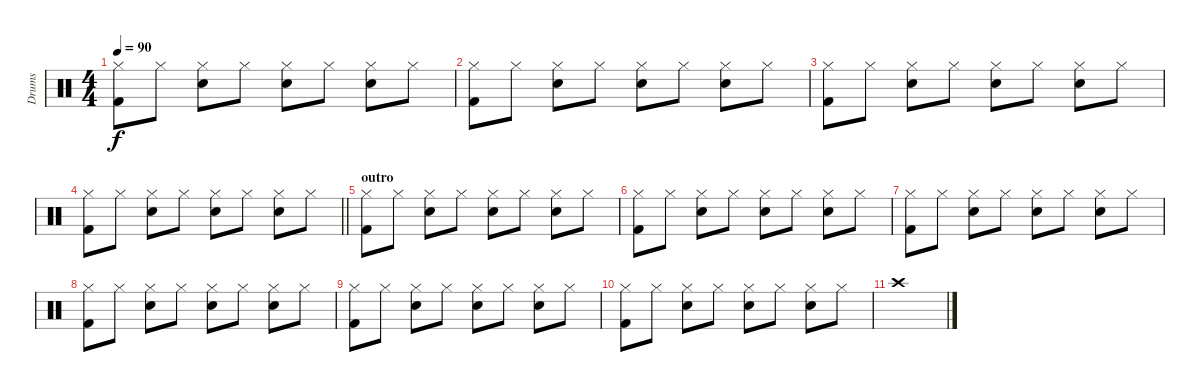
\track ("Drums" "Drums") {instrument percussion}
\staff {score}
\articulation defaults
\ts (4 4)
\tempo 90
\clef neutral
\ks c
("Hi-Hat (closed)" "Kick (hit) 2").8{dy f} "Hi-Hat (closed)".8 ("Hi-Hat (closed)" "Snare (hit) 2").8 "Hi-Hat (closed)".8 ("Hi-Hat (closed)" "Snare (hit) 2").8 "Hi-Hat (closed)".8 ("Hi-Hat (closed)" "Snare (hit) 2").8 "Hi-Hat (closed)".8 |
("Hi-Hat (closed)" "Kick (hit) 2").8 "Hi-Hat (closed)".8 ("Hi-Hat (closed)" "Snare (hit) 2").8 "Hi-Hat (closed)".8 ("Hi-Hat (closed)" "Snare (hit) 2").8 "Hi-Hat (closed)".8 ("Hi-Hat (closed)" "Snare (hit) 2").8 "Hi-Hat (closed)".8 |
("Hi-Hat (closed)" "Kick (hit) 2").8 "Hi-Hat (closed)".8 ("Hi-Hat (closed)" "Snare (hit) 2").8 "Hi-Hat (closed)".8 ("Hi-Hat (closed)" "Snare (hit) 2").8 "Hi-Hat (closed)".8 ("Hi-Hat (closed)" "Snare (hit) 2").8 "Hi-Hat (closed)".8 |
\barLineRight lightlight
("Hi-Hat (closed)" "Kick (hit) 2").8 "Hi-Hat (closed)".8 ("Hi-Hat (closed)" "Snare (hit) 2").8 "Hi-Hat (closed)".8 ("Hi-Hat (closed)" "Snare (hit) 2").8 "Hi-Hat (closed)".8 ("Hi-Hat (closed)" "Snare (hit) 2").8 "Hi-Hat (closed)".8 |
\section ("" "outro")
("Hi-Hat (closed)" "Kick (hit) 2").8 "Hi-Hat (closed)".8 ("Hi-Hat (closed)" "Snare (hit) 2").8 "Hi-Hat (closed)".8 ("Hi-Hat (closed)" "Snare (hit) 2").8 "Hi-Hat (closed)".8 ("Hi-Hat (closed)" "Snare (hit) 2").8 "Hi-Hat (closed)".8 |
("Hi-Hat (closed)" "Kick (hit) 2").8 "Hi-Hat (closed)".8 ("Hi-Hat (closed)" "Snare (hit) 2").8 "Hi-Hat (closed)".8 ("Hi-Hat (closed)" "Snare (hit) 2").8 "Hi-Hat (closed)".8 ("Hi-Hat (closed)" "Snare (hit) 2").8 "Hi-Hat (closed)".8 |
("Hi-Hat (closed)" "Kick (hit) 2").8 "Hi-Hat (closed)".8 ("Hi-Hat (closed)" "Snare (hit) 2").8 "Hi-Hat (closed)".8 ("Hi-Hat (closed)" "Snare (hit) 2").8 "Hi-Hat (closed)".8 ("Hi-Hat (closed)" "Snare (hit) 2").8 "Hi-Hat (closed)".8 |
("Hi-Hat (closed)" "Kick (hit) 2").8 "Hi-Hat (closed)".8 ("Hi-Hat (closed)" "Snare (hit) 2").8 "Hi-Hat (closed)".8 ("Hi-Hat (closed)" "Snare (hit) 2").8 "Hi-Hat (closed)".8 ("Hi-Hat (closed)" "Snare (hit) 2").8 "Hi-Hat (closed)".8 |
("Hi-Hat (closed)" "Kick (hit) 2").8 "Hi-Hat (closed)".8 ("Hi-Hat (closed)" "Snare (hit) 2").8 "Hi-Hat (closed)".8 ("Hi-Hat (closed)" "Snare (hit) 2").8 "Hi-Hat (closed)".8 ("Hi-Hat (closed)" "Snare (hit) 2").8 "Hi-Hat (closed)".8 |
("Hi-Hat (closed)" "Kick (hit) 2").8 "Hi-Hat (closed)".8 ("Hi-Hat (closed)" "Snare (hit) 2").8 "Hi-Hat (closed)".8 ("Hi-Hat (closed)" "Snare (hit) 2").8 "Hi-Hat (closed)".8 ("Hi-Hat (closed)" "Snare (hit) 2").8 "Hi-Hat (closed)".8 |
"Crash high (hit)".1
